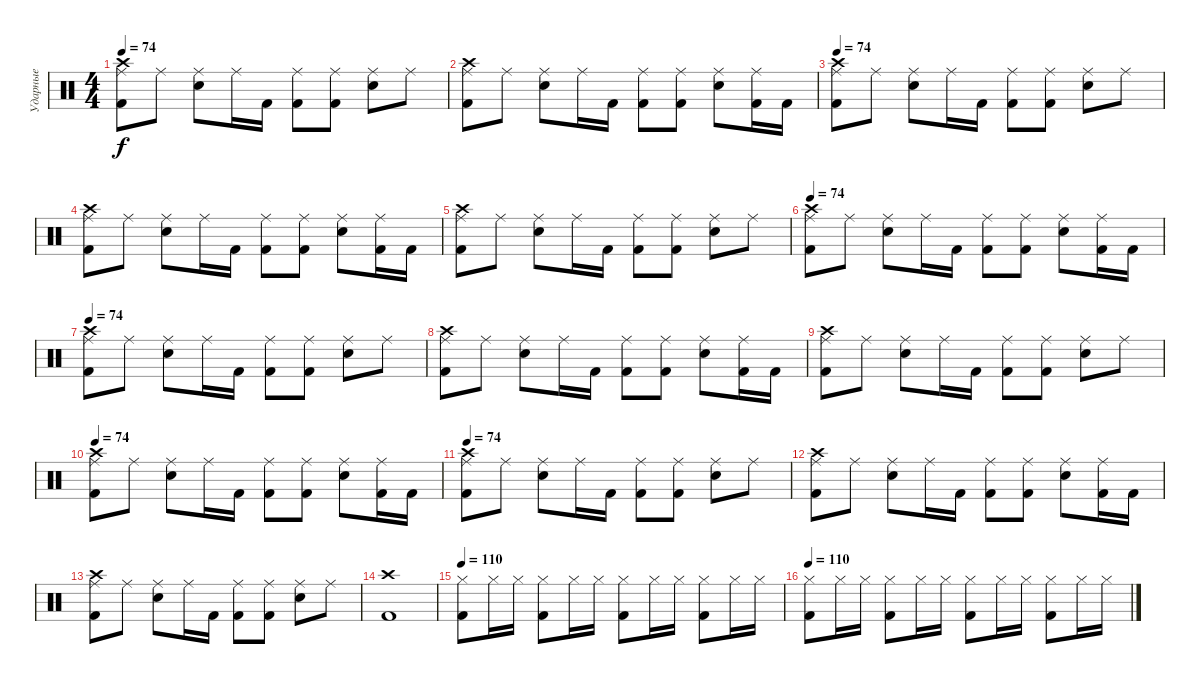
\track ("Ударные" "Ударные") {instrument percussion}
\staff {score}
\articulation defaults
\ts (4 4)
\tempo 74
\clef neutral
\ks c
("Kick (hit) 2" "Crash high (hit)" "Ride (middle)").8{dy f} "Ride (middle)".8 ("Electric Snare (hit)" "Ride (middle)").8 "Ride (middle)".16 "Kick (hit) 2".16 ("Kick (hit) 2" "Ride (middle)").8 ("Kick (hit) 2" "Ride (middle)").8 ("Electric Snare (hit)" "Ride (middle)").8 "Ride (middle)".8 |
("Kick (hit) 2" "Crash high (hit)" "Ride (middle)").8 "Ride (middle)".8 ("Electric Snare (hit)" "Ride (middle)").8 "Ride (middle)".16 "Kick (hit) 2".16 ("Kick (hit) 2" "Ride (middle)").8 ("Kick (hit) 2" "Ride (middle)").8 ("Electric Snare (hit)" "Ride (middle)").8 ("Kick (hit) 2" "Ride (middle)").16 "Kick (hit) 2".16 |
\tempo 74
("Kick (hit) 2" "Crash high (hit)" "Ride (middle)").8 "Ride (middle)".8 ("Electric Snare (hit)" "Ride (middle)").8 "Ride (middle)".16 "Kick (hit) 2".16 ("Kick (hit) 2" "Ride (middle)").8 ("Kick (hit) 2" "Ride (middle)").8 ("Electric Snare (hit)" "Ride (middle)").8 "Ride (middle)".8 |
("Kick (hit) 2" "Crash high (hit)" "Ride (middle)").8 "Ride (middle)".8 ("Electric Snare (hit)" "Ride (middle)").8 "Ride (middle)".16 "Kick (hit) 2".16 ("Kick (hit) 2" "Ride (middle)").8 ("Kick (hit) 2" "Ride (middle)").8 ("Electric Snare (hit)" "Ride (middle)").8 ("Kick (hit) 2" "Ride (middle)").16 "Kick (hit) 2".16 |
("Kick (hit) 2" "Crash high (hit)" "Ride (middle)").8 "Ride (middle)".8 ("Electric Snare (hit)" "Ride (middle)").8 "Ride (middle)".16 "Kick (hit) 2".16 ("Kick (hit) 2" "Ride (middle)").8 ("Kick (hit) 2" "Ride (middle)").8 ("Electric Snare (hit)" "Ride (middle)").8 "Ride (middle)".8 |
\tempo 74
("Kick (hit) 2" "Crash high (hit)" "Ride (middle)").8 "Ride (middle)".8 ("Electric Snare (hit)" "Ride (middle)").8 "Ride (middle)".16 "Kick (hit) 2".16 ("Kick (hit) 2" "Ride (middle)").8 ("Kick (hit) 2" "Ride (middle)").8 ("Electric Snare (hit)" "Ride (middle)").8 ("Kick (hit) 2" "Ride (middle)").16 "Kick (hit) 2".16 |
\tempo 74
("Kick (hit) 2" "Crash high (hit)" "Ride (middle)").8 "Ride (middle)".8 ("Electric Snare (hit)" "Ride (middle)").8 "Ride (middle)".16 "Kick (hit) 2".16 ("Kick (hit) 2" "Ride (middle)").8 ("Kick (hit) 2" "Ride (middle)").8 ("Electric Snare (hit)" "Ride (middle)").8 "Ride (middle)".8 |
("Kick (hit) 2" "Crash high (hit)" "Ride (middle)").8 "Ride (middle)".8 ("Electric Snare (hit)" "Ride (middle)").8 "Ride (middle)".16 "Kick (hit) 2".16 ("Kick (hit) 2" "Ride (middle)").8 ("Kick (hit) 2" "Ride (middle)").8 ("Electric Snare (hit)" "Ride (middle)").8 ("Kick (hit) 2" "Ride (middle)").16 "Kick (hit) 2".16 |
("Kick (hit) 2" "Crash high (hit)" "Ride (middle)").8 "Ride (middle)".8 ("Electric Snare (hit)" "Ride (middle)").8 "Ride (middle)".16 "Kick (hit) 2".16 ("Kick (hit) 2" "Ride (middle)").8 ("Kick (hit) 2" "Ride (middle)").8 ("Electric Snare (hit)" "Ride (middle)").8 "Ride (middle)".8 |
\tempo 74
("Kick (hit) 2" "Crash high (hit)" "Ride (middle)").8 "Ride (middle)".8 ("Electric Snare (hit)" "Ride (middle)").8 "Ride (middle)".16 "Kick (hit) 2".16 ("Kick (hit) 2" "Ride (middle)").8 ("Kick (hit) 2" "Ride (middle)").8 ("Electric Snare (hit)" "Ride (middle)").8 ("Kick (hit) 2" "Ride (middle)").16 "Kick (hit) 2".16 |
\tempo 74
("Kick (hit) 2" "Crash high (hit)" "Ride (middle)").8 "Ride (middle)".8 ("Electric Snare (hit)" "Ride (middle)").8 "Ride (middle)".16 "Kick (hit) 2".16 ("Kick (hit) 2" "Ride (middle)").8 ("Kick (hit) 2" "Ride (middle)").8 ("Electric Snare (hit)" "Ride (middle)").8 "Ride (middle)".8 |
("Kick (hit) 2" "Crash high (hit)" "Ride (middle)").8 "Ride (middle)".8 ("Electric Snare (hit)" "Ride (middle)").8 "Ride (middle)".16 "Kick (hit) 2".16 ("Kick (hit) 2" "Ride (middle)").8 ("Kick (hit) 2" "Ride (middle)").8 ("Electric Snare (hit)" "Ride (middle)").8 ("Kick (hit) 2" "Ride (middle)").16 "Kick (hit) 2".16 |
("Kick (hit) 2" "Crash high (hit)" "Ride (middle)").8 "Ride (middle)".8 ("Electric Snare (hit)" "Ride (middle)").8 "Ride (middle)".16 "Kick (hit) 2".16 ("Kick (hit) 2" "Ride (middle)").8 ("Kick (hit) 2" "Ride (middle)").8 ("Electric Snare (hit)" "Ride (middle)").8 "Ride (middle)".8 |
("Crash high (hit)" "Kick (hit) 2").1 |
\tempo 110
("Kick (hit) 2" "Hi-Hat (closed)").8 "Hi-Hat (closed)".16 "Hi-Hat (closed)".16 ("Kick (hit) 2" "Hi-Hat (closed)").8 "Hi-Hat (closed)".16 "Hi-Hat (closed)".16 ("Kick (hit) 2" "Hi-Hat (closed)").8 "Hi-Hat (closed)".16 "Hi-Hat (closed)".16 ("Kick (hit) 2" "Hi-Hat (closed)").8 "Hi-Hat (closed)".16 "Hi-Hat (closed)".16 |
\tempo 110
("Kick (hit) 2" "Hi-Hat (closed)").8 "Hi-Hat (closed)".16 "Hi-Hat (closed)".16 ("Kick (hit) 2" "Hi-Hat (closed)").8 "Hi-Hat (closed)".16 "Hi-Hat (closed)".16 ("Kick (hit) 2" "Hi-Hat (closed)").8 "Hi-Hat (closed)".16 "Hi-Hat (closed)".16 ("Kick (hit) 2" "Hi-Hat (closed)").8 "Hi-Hat (closed)".16 "Hi-Hat (closed)".16
